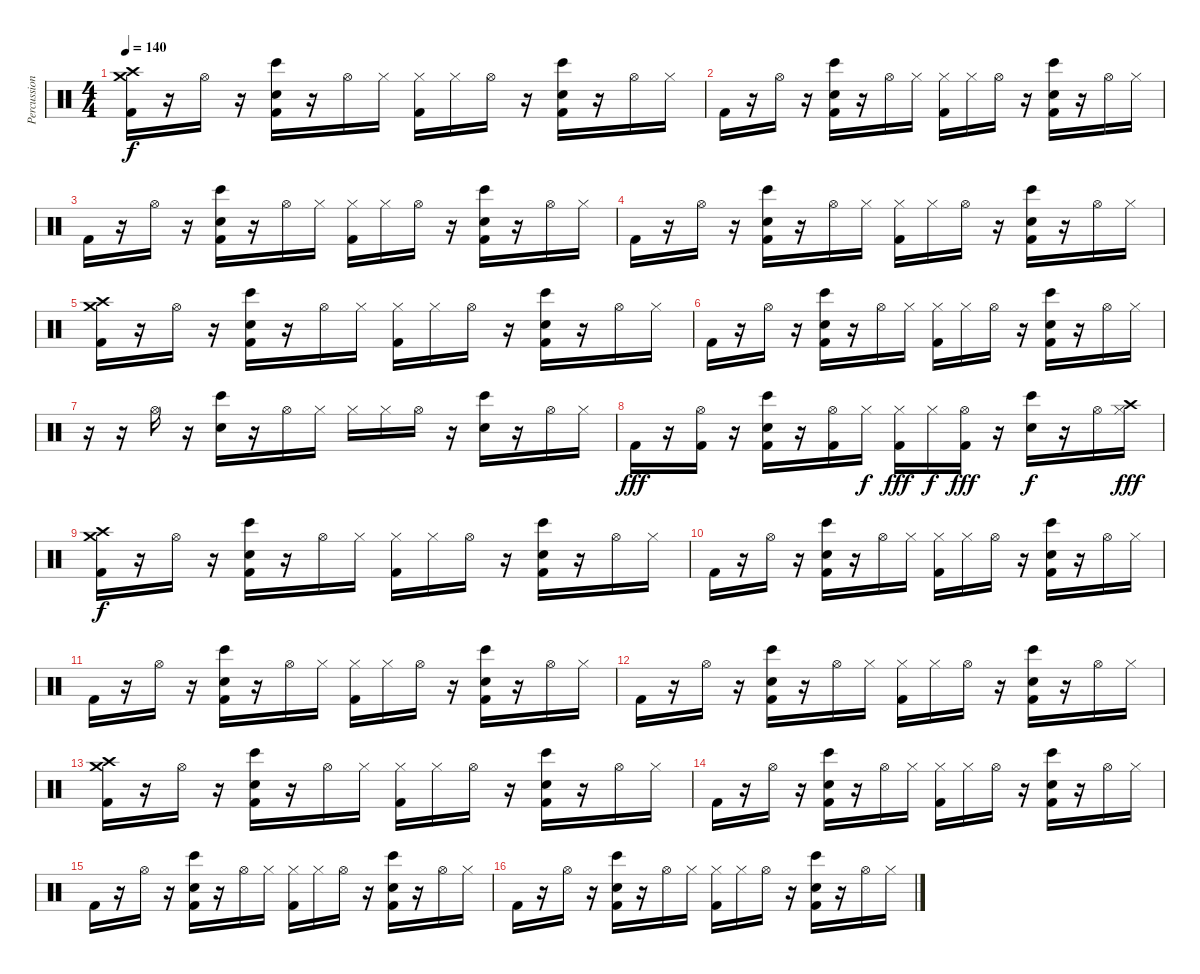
\track ("Percussion" "Percussion") {instrument percussion}
\staff {score}
\articulation defaults
\ts (4 4)
\tempo 140
\clef neutral
\ks c
("Crash high (hit)" "Crash medium (hit)" "Kick (hit) 2").16{dy f} r.16 "Hi-Hat (open)".16 r.16 ("Hand Clap (hit)" "Bongo High (hit)" "Kick (hit) 2").16 r.16 "Hi-Hat (open)".16 "Hi-Hat (closed)".16 ("Hi-Hat (closed)" "Kick (hit) 2").16 "Hi-Hat (closed)".16 "Hi-Hat (open)".16 r.16 ("Hand Clap (hit)" "Bongo High (hit)" "Kick (hit) 2").16 r.16 "Hi-Hat (open)".16 "Hi-Hat (closed)".16 |
"Kick (hit) 2".16 r.16 "Hi-Hat (open)".16 r.16 ("Hand Clap (hit)" "Bongo High (hit)" "Kick (hit) 2").16 r.16 "Hi-Hat (open)".16 "Hi-Hat (closed)".16 ("Hi-Hat (closed)" "Kick (hit) 2").16 "Hi-Hat (closed)".16 "Hi-Hat (open)".16 r.16 ("Hand Clap (hit)" "Bongo High (hit)" "Kick (hit) 2").16 r.16 "Hi-Hat (open)".16 "Hi-Hat (closed)".16 |
"Kick (hit) 2".16 r.16 "Hi-Hat (open)".16 r.16 ("Hand Clap (hit)" "Bongo High (hit)" "Kick (hit) 2").16 r.16 "Hi-Hat (open)".16 "Hi-Hat (closed)".16 ("Hi-Hat (closed)" "Kick (hit) 2").16 "Hi-Hat (closed)".16 "Hi-Hat (open)".16 r.16 ("Hand Clap (hit)" "Bongo High (hit)" "Kick (hit) 2").16 r.16 "Hi-Hat (open)".16 "Hi-Hat (closed)".16 |
"Kick (hit) 2".16 r.16 "Hi-Hat (open)".16 r.16 ("Hand Clap (hit)" "Bongo High (hit)" "Kick (hit) 2").16 r.16 "Hi-Hat (open)".16 "Hi-Hat (closed)".16 ("Hi-Hat (closed)" "Kick (hit) 2").16 "Hi-Hat (closed)".16 "Hi-Hat (open)".16 r.16 ("Hand Clap (hit)" "Bongo High (hit)" "Kick (hit) 2").16 r.16 "Hi-Hat (open)".16 "Hi-Hat (closed)".16 |
("Crash high (hit)" "Crash medium (hit)" "Kick (hit) 2").16 r.16 "Hi-Hat (open)".16 r.16 ("Hand Clap (hit)" "Bongo High (hit)" "Kick (hit) 2").16 r.16 "Hi-Hat (open)".16 "Hi-Hat (closed)".16 ("Hi-Hat (closed)" "Kick (hit) 2").16 "Hi-Hat (closed)".16 "Hi-Hat (open)".16 r.16 ("Hand Clap (hit)" "Bongo High (hit)" "Kick (hit) 2").16 r.16 "Hi-Hat (open)".16 "Hi-Hat (closed)".16 |
"Kick (hit) 2".16 r.16 "Hi-Hat (open)".16 r.16 ("Hand Clap (hit)" "Bongo High (hit)" "Kick (hit) 2").16 r.16 "Hi-Hat (open)".16 "Hi-Hat (closed)".16 ("Hi-Hat (closed)" "Kick (hit) 2").16 "Hi-Hat (closed)".16 "Hi-Hat (open)".16 r.16 ("Hand Clap (hit)" "Bongo High (hit)" "Kick (hit) 2").16 r.16 "Hi-Hat (open)".16 "Hi-Hat (closed)".16 |
r.16 r.16 "Hi-Hat (open)".16 r.16 ("Hand Clap (hit)" "Bongo High (hit)").16 r.16 "Hi-Hat (open)".16 "Hi-Hat (closed)".16 "Hi-Hat (closed)".16 "Hi-Hat (closed)".16 "Hi-Hat (open)".16 r.16 ("Hand Clap (hit)" "Bongo High (hit)").16 r.16 "Hi-Hat (open)".16 "Hi-Hat (closed)".16 |
"Kick (hit) 2".16{dy fff} r.16 ("Hi-Hat (open)" "Kick (hit) 2").16 r.16 ("Hand Clap (hit)" "Bongo High (hit)" "Kick (hit) 2").16 r.16 ("Hi-Hat (open)" "Kick (hit) 2").16 "Hi-Hat (closed)".16{dy f} ("Hi-Hat (closed)" "Kick (hit) 2").16{dy fff} "Hi-Hat (closed)".16{dy f} ("Hi-Hat (open)" "Kick (hit) 2").16{dy fff} r.16 ("Hand Clap (hit)" "Bongo High (hit)").16{dy f} r.16 "Hi-Hat (open)".16 ("Crash high (hit)" "Hi-Hat (closed)").16{dy fff} |
("Crash high (hit)" "Crash medium (hit)" "Kick (hit) 2").16{dy f} r.16 "Hi-Hat (open)".16 r.16 ("Hand Clap (hit)" "Bongo High (hit)" "Kick (hit) 2").16 r.16 "Hi-Hat (open)".16 "Hi-Hat (closed)".16 ("Hi-Hat (closed)" "Kick (hit) 2").16 "Hi-Hat (closed)".16 "Hi-Hat (open)".16 r.16 ("Hand Clap (hit)" "Bongo High (hit)" "Kick (hit) 2").16 r.16 "Hi-Hat (open)".16 "Hi-Hat (closed)".16 |
"Kick (hit) 2".16 r.16 "Hi-Hat (open)".16 r.16 ("Hand Clap (hit)" "Bongo High (hit)" "Kick (hit) 2").16 r.16 "Hi-Hat (open)".16 "Hi-Hat (closed)".16 ("Hi-Hat (closed)" "Kick (hit) 2").16 "Hi-Hat (closed)".16 "Hi-Hat (open)".16 r.16 ("Hand Clap (hit)" "Bongo High (hit)" "Kick (hit) 2").16 r.16 "Hi-Hat (open)".16 "Hi-Hat (closed)".16 |
"Kick (hit) 2".16 r.16 "Hi-Hat (open)".16 r.16 ("Hand Clap (hit)" "Bongo High (hit)" "Kick (hit) 2").16 r.16 "Hi-Hat (open)".16 "Hi-Hat (closed)".16 ("Hi-Hat (closed)" "Kick (hit) 2").16 "Hi-Hat (closed)".16 "Hi-Hat (open)".16 r.16 ("Hand Clap (hit)" "Bongo High (hit)" "Kick (hit) 2").16 r.16 "Hi-Hat (open)".16 "Hi-Hat (closed)".16 |
"Kick (hit) 2".16 r.16 "Hi-Hat (open)".16 r.16 ("Hand Clap (hit)" "Bongo High (hit)" "Kick (hit) 2").16 r.16 "Hi-Hat (open)".16 "Hi-Hat (closed)".16 ("Hi-Hat (closed)" "Kick (hit) 2").16 "Hi-Hat (closed)".16 "Hi-Hat (open)".16 r.16 ("Hand Clap (hit)" "Bongo High (hit)" "Kick (hit) 2").16 r.16 "Hi-Hat (open)".16 "Hi-Hat (closed)".16 |
("Crash high (hit)" "Crash medium (hit)" "Kick (hit) 2").16 r.16 "Hi-Hat (open)".16 r.16 ("Hand Clap (hit)" "Bongo High (hit)" "Kick (hit) 2").16 r.16 "Hi-Hat (open)".16 "Hi-Hat (closed)".16 ("Hi-Hat (closed)" "Kick (hit) 2").16 "Hi-Hat (closed)".16 "Hi-Hat (open)".16 r.16 ("Hand Clap (hit)" "Bongo High (hit)" "Kick (hit) 2").16 r.16 "Hi-Hat (open)".16 "Hi-Hat (closed)".16 |
"Kick (hit) 2".16 r.16 "Hi-Hat (open)".16 r.16 ("Hand Clap (hit)" "Bongo High (hit)" "Kick (hit) 2").16 r.16 "Hi-Hat (open)".16 "Hi-Hat (closed)".16 ("Hi-Hat (closed)" "Kick (hit) 2").16 "Hi-Hat (closed)".16 "Hi-Hat (open)".16 r.16 ("Hand Clap (hit)" "Bongo High (hit)" "Kick (hit) 2").16 r.16 "Hi-Hat (open)".16 "Hi-Hat (closed)".16 |
"Kick (hit) 2".16 r.16 "Hi-Hat (open)".16 r.16 ("Hand Clap (hit)" "Bongo High (hit)" "Kick (hit) 2").16 r.16 "Hi-Hat (open)".16 "Hi-Hat (closed)".16 ("Hi-Hat (closed)" "Kick (hit) 2").16 "Hi-Hat (closed)".16 "Hi-Hat (open)".16 r.16 ("Hand Clap (hit)" "Bongo High (hit)" "Kick (hit) 2").16 r.16 "Hi-Hat (open)".16 "Hi-Hat (closed)".16 |
"Kick (hit) 2".16 r.16 "Hi-Hat (open)".16 r.16 ("Hand Clap (hit)" "Bongo High (hit)" "Kick (hit) 2").16 r.16 "Hi-Hat (open)".16 "Hi-Hat (closed)".16 ("Hi-Hat (closed)" "Kick (hit) 2").16 "Hi-Hat (closed)".16 "Hi-Hat (open)".16 r.16 ("Hand Clap (hit)" "Bongo High (hit)" "Kick (hit) 2").16 r.16 "Hi-Hat (open)".16 "Hi-Hat (closed)".16
